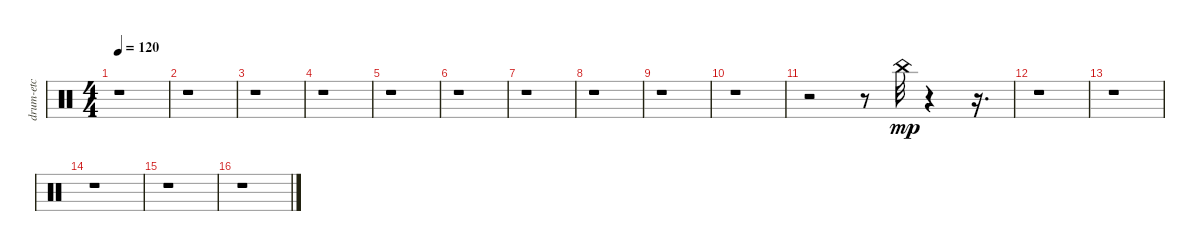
\track ("drum-etc" "drum-etc") {instrument percussion}
\staff {score}
\articulation defaults
\ts (4 4)
\tempo 120
\clef neutral
\ks c
r.1{dy mp} |
r.1 |
r.1 |
r.1 |
r.1 |
r.1 |
r.1 |
r.1 |
r.1 |
r.1 |
r.2 r.8 "China (hit)".32 r.4 r.16{d} |
r.1 |
r.1 |
r.1 |
r.1 |
r.1
